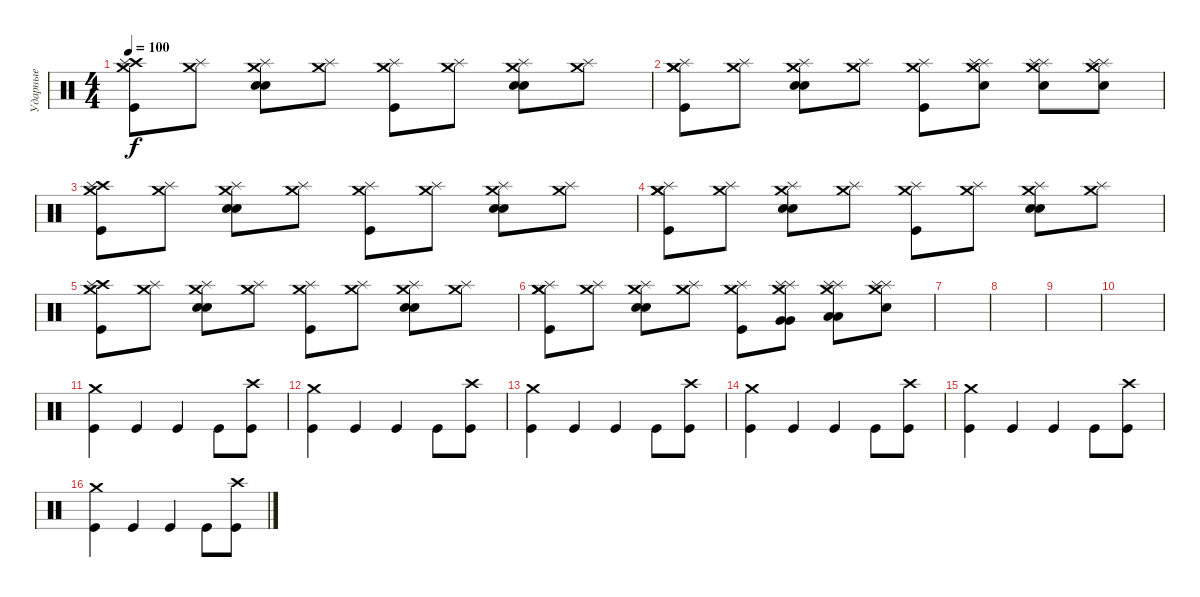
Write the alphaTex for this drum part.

\track ("Ударные" "Ударные") {instrument percussion}
\staff {score}
\articulation defaults
\ts (4 4)
\tempo 100
\clef neutral
\ks c
("Crash medium (hit)" "Crash high (hit)" "Splash (hit)" "Kick (hit)").8{dy f} ("Crash medium (hit)" "Splash (hit)").8 ("Crash medium (hit)" "Splash (hit)" "Snare (hit) 2" "Snare (hit) 2").8 ("Crash medium (hit)" "Splash (hit)").8 ("Crash medium (hit)" "Splash (hit)" "Kick (hit)").8 ("Crash medium (hit)" "Splash (hit)").8 ("Crash medium (hit)" "Splash (hit)" "Snare (hit) 2" "Snare (hit) 2").8 ("Crash medium (hit)" "Splash (hit)").8 |
("Crash medium (hit)" "Crash medium (hit)" "Splash (hit)" "Kick (hit)").8 ("Crash medium (hit)" "Splash (hit)").8 ("Crash medium (hit)" "Splash (hit)" "Snare (hit) 2" "Snare (hit) 2").8 ("Crash medium (hit)" "Splash (hit)").8 ("Crash medium (hit)" "Splash (hit)" "Kick (hit)").8 ("Crash medium (hit)" "Splash (hit)" "Splash (hit)" "Electric Snare (hit)").8 ("Crash medium (hit)" "Splash (hit)" "Splash (hit)" "Electric Snare (hit)").8 ("Crash medium (hit)" "Splash (hit)" "Splash (hit)" "Electric Snare (hit)").8 |
("Crash medium (hit)" "Crash high (hit)" "Splash (hit)" "Kick (hit)").8 ("Crash medium (hit)" "Splash (hit)").8 ("Crash medium (hit)" "Splash (hit)" "Snare (hit) 2" "Snare (hit) 2").8 ("Crash medium (hit)" "Splash (hit)").8 ("Crash medium (hit)" "Splash (hit)" "Kick (hit)").8 ("Crash medium (hit)" "Splash (hit)").8 ("Crash medium (hit)" "Splash (hit)" "Snare (hit) 2" "Snare (hit) 2").8 ("Crash medium (hit)" "Splash (hit)").8 |
("Crash medium (hit)" "Crash medium (hit)" "Splash (hit)" "Kick (hit)").8 ("Crash medium (hit)" "Splash (hit)").8 ("Crash medium (hit)" "Splash (hit)" "Snare (hit) 2" "Snare (hit) 2").8 ("Crash medium (hit)" "Splash (hit)").8 ("Crash medium (hit)" "Splash (hit)" "Kick (hit)").8 ("Crash medium (hit)" "Splash (hit)").8 ("Crash medium (hit)" "Splash (hit)" "Snare (hit) 2" "Snare (hit) 2").8 ("Crash medium (hit)" "Splash (hit)").8 |
("Crash medium (hit)" "Crash high (hit)" "Splash (hit)" "Kick (hit)").8 ("Crash medium (hit)" "Splash (hit)").8 ("Crash medium (hit)" "Splash (hit)" "Snare (hit) 2" "Snare (hit) 2").8 ("Crash medium (hit)" "Splash (hit)").8 ("Crash medium (hit)" "Splash (hit)" "Kick (hit)").8 ("Crash medium (hit)" "Splash (hit)").8 ("Crash medium (hit)" "Splash (hit)" "Snare (hit) 2" "Snare (hit) 2").8 ("Crash medium (hit)" "Splash (hit)").8 |
("Crash medium (hit)" "Crash medium (hit)" "Splash (hit)" "Kick (hit)").8 ("Crash medium (hit)" "Splash (hit)").8 ("Crash medium (hit)" "Splash (hit)" "Snare (hit) 2" "Snare (hit) 2").8 ("Crash medium (hit)" "Splash (hit)").8 ("Crash medium (hit)" "Splash (hit)" "Kick (hit)").8 ("Crash medium (hit)" "Splash (hit)" "Splash (hit)" "Very Low Tom (hit)" "Very Low Tom (hit)").8 ("Crash medium (hit)" "Splash (hit)" "Splash (hit)" "Low Floor Tom (hit)" "Low Floor Tom (hit)").8 ("Crash medium (hit)" "Splash (hit)" "Splash (hit)" "Electric Snare (hit)").8 |
|
|
|
|
("Crash medium (hit)" "Kick (hit)").4 "Kick (hit)".4 "Kick (hit)".4 "Kick (hit)".8 ("Crash high (hit)" "Kick (hit)").8 |
("Crash medium (hit)" "Kick (hit)").4 "Kick (hit)".4 "Kick (hit)".4 "Kick (hit)".8 ("Crash high (hit)" "Kick (hit)").8 |
("Crash medium (hit)" "Kick (hit)").4 "Kick (hit)".4 "Kick (hit)".4 "Kick (hit)".8 ("Crash high (hit)" "Kick (hit)").8 |
("Crash medium (hit)" "Kick (hit)").4 "Kick (hit)".4 "Kick (hit)".4 "Kick (hit)".8 ("Crash high (hit)" "Kick (hit)").8 |
("Crash medium (hit)" "Kick (hit)").4 "Kick (hit)".4 "Kick (hit)".4 "Kick (hit)".8 ("Crash high (hit)" "Kick (hit)").8 |
("Crash medium (hit)" "Kick (hit)").4 "Kick (hit)".4 "Kick (hit)".4 "Kick (hit)".8 ("Crash high (hit)" "Kick (hit)").8
